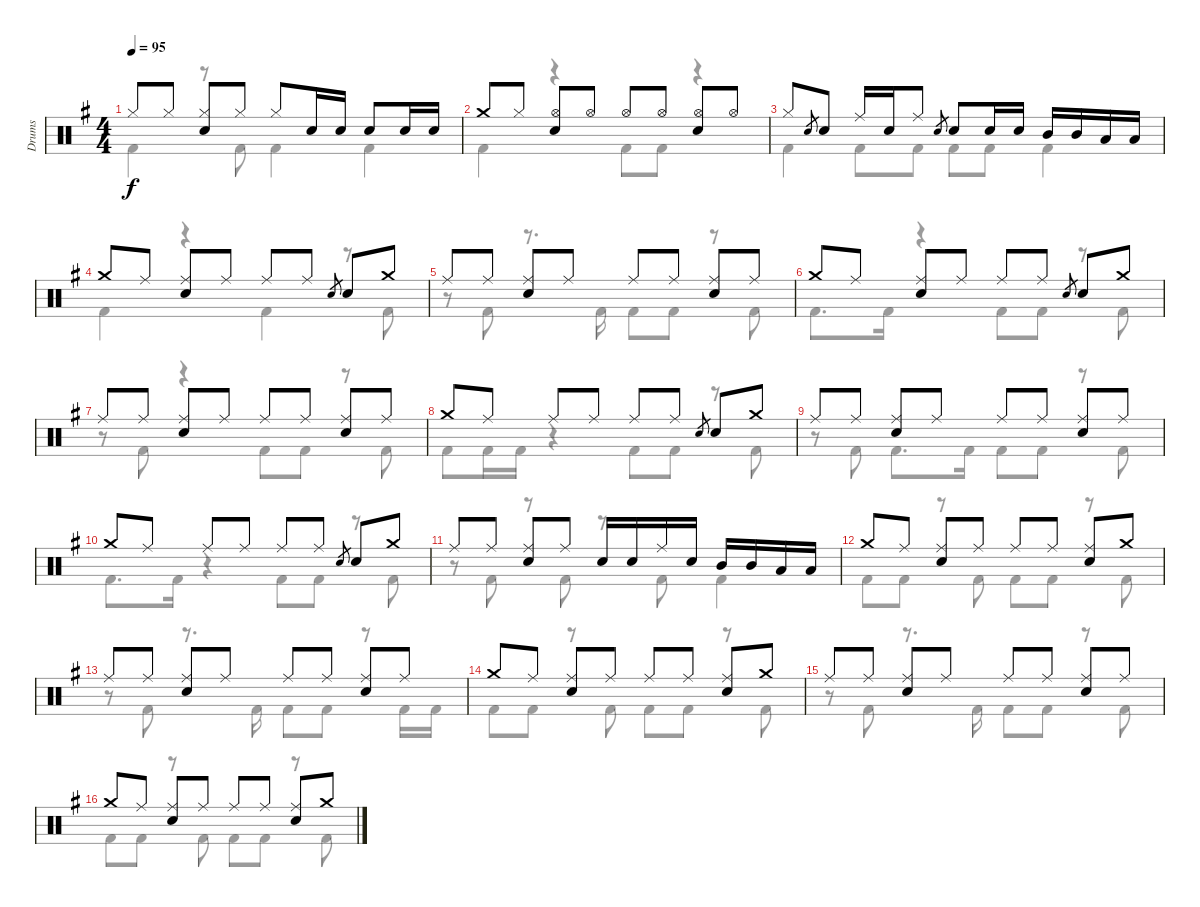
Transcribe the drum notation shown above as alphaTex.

\track ("Drums" "Drums") {instrument percussion}
\staff {score}
\articulation defaults
\voice
\ts (4 4)
\tempo 95
\clef neutral
\ks g "Hi-Hat (closed)".8{dy f} "Hi-Hat (closed)".8
("Hi-Hat (closed)" "Snare (hit) 2").8 "Hi-Hat (closed)".8 "Hi-Hat (closed)".8 "Snare (hit) 2".16 "Snare (hit) 2".16 "Snare (hit) 2".8 "Snare (hit) 2".16 "Snare (hit) 2".16 |
"Crash medium (hit)".8 "Hi-Hat (closed)".8 ("Hi-Hat (open)" "Snare (hit) 2").8 "Hi-Hat (open)".8 "Hi-Hat (open)".8 "Hi-Hat (open)".8 ("Hi-Hat (open)" "Snare (hit) 2").8 "Hi-Hat (open)".8 |
"Hi-Hat (closed)".8 "Snare (hit) 2".8{gr} "Snare (hit) 2".8 "Ride (middle)".16 "Snare (hit) 2".16 "Ride (middle)".8 "Snare (hit) 2".8{gr} "Snare (hit) 2".8 "Snare (hit) 2".16 "Snare (hit) 2".16 "Mid Tom (hit)".16 "Mid Tom (hit)".16 "Low Tom (hit)".16 "Low Tom (hit)".16 |
"Crash medium (hit)".8 "Ride (middle)".8 ("Ride (middle)" "Snare (hit) 2").8 "Ride (middle)".8 "Ride (middle)".8 "Ride (middle)".8 "Snare (hit) 2".8{gr} "Snare (hit) 2".8 "Crash medium (hit)".8 |
"Ride (middle)".8 "Ride (middle)".8 ("Ride (middle)" "Snare (hit) 2").8 "Ride (middle)".8 "Ride (middle)".8 "Ride (middle)".8 ("Ride (middle)" "Snare (hit) 2").8 "Ride (middle)".8 |
"Crash medium (hit)".8 "Ride (middle)".8 ("Ride (middle)" "Snare (hit) 2").8 "Ride (middle)".8 "Ride (middle)".8 "Ride (middle)".8 "Snare (hit) 2".8{gr} "Snare (hit) 2".8 "Crash medium (hit)".8 |
"Ride (middle)".8 "Ride (middle)".8 ("Ride (middle)" "Snare (hit) 2").8 "Ride (middle)".8 "Ride (middle)".8 "Ride (middle)".8 ("Ride (middle)" "Snare (hit) 2").8 "Ride (middle)".8 |
"Crash medium (hit)".8 "Ride (middle)".8 "Ride (middle)".8 "Ride (middle)".8 "Ride (middle)".8 "Ride (middle)".8 "Snare (hit) 2".8{gr} "Snare (hit) 2".8 "Crash medium (hit)".8 |
"Ride (middle)".8 "Ride (middle)".8 ("Ride (middle)" "Snare (hit) 2").8 "Ride (middle)".8 "Ride (middle)".8 "Ride (middle)".8 ("Ride (middle)" "Snare (hit) 2").8 "Ride (middle)".8 |
"Crash medium (hit)".8 "Ride (middle)".8 "Ride (middle)".8 "Ride (middle)".8 "Ride (middle)".8 "Ride (middle)".8 "Snare (hit) 2".8{gr} "Snare (hit) 2".8 "Crash medium (hit)".8 |
"Ride (middle)".8 "Ride (middle)".8 ("Ride (middle)" "Snare (hit) 2").8 "Ride (middle)".8 "Snare (hit) 2".16 "Snare (hit) 2".16 "Ride (middle)".16 "Snare (hit) 2".16 "Mid Tom (hit)".16 "Mid Tom (hit)".16 "Low Tom (hit)".16 "Low Tom (hit)".16 |
"Crash medium (hit)".8 "Ride (middle)".8 ("Ride (middle)" "Snare (hit) 2").8 "Ride (middle)".8 "Ride (middle)".8 "Ride (middle)".8 ("Ride (middle)" "Snare (hit) 2").8 "Crash medium (hit)".8 |
"Ride (middle)".8 "Ride (middle)".8 ("Ride (middle)" "Snare (hit) 2").8 "Ride (middle)".8 "Ride (middle)".8 "Ride (middle)".8 ("Ride (middle)" "Snare (hit) 2").8 "Ride (middle)".8 |
"Crash medium (hit)".8 "Ride (middle)".8 ("Ride (middle)" "Snare (hit) 2").8 "Ride (middle)".8 "Ride (middle)".8 "Ride (middle)".8 ("Ride (middle)" "Snare (hit) 2").8 "Crash medium (hit)".8 |
"Ride (middle)".8 "Ride (middle)".8 ("Ride (middle)" "Snare (hit) 2").8 "Ride (middle)".8 "Ride (middle)".8 "Ride (middle)".8 ("Ride (middle)" "Snare (hit) 2").8 "Ride (middle)".8 |
"Crash medium (hit)".8 "Ride (middle)".8 ("Ride (middle)" "Snare (hit) 2").8 "Ride (middle)".8 "Ride (middle)".8 "Ride (middle)".8 ("Ride (middle)" "Snare (hit) 2").8 "Crash medium (hit)".8
\voice
\clef neutral
\ottava regular
\simile none
\ks g "Kick (hit) 2".4{dy f}
r.8 "Kick (hit) 2".8 "Kick (hit) 2".4 "Kick (hit) 2".4 |
"Kick (hit) 2".4 r.4 "Kick (hit) 2".8 "Kick (hit) 2".8 r.4 |
"Kick (hit) 2".4 "Kick (hit) 2".8 "Kick (hit) 2".8 "Kick (hit) 2".8 "Kick (hit) 2".8 "Kick (hit) 2".4 |
"Kick (hit) 2".4 r.4 "Kick (hit) 2".4 r.8 "Kick (hit) 2".8 |
r.8 "Kick (hit) 2".8 r.8{d} "Kick (hit) 2".16 "Kick (hit) 2".8 "Kick (hit) 2".8 r.8 "Kick (hit) 2".8 |
"Kick (hit) 2".8{d} "Kick (hit) 2".16 r.4 "Kick (hit) 2".8 "Kick (hit) 2".8 r.8 "Kick (hit) 2".8 |
r.8 "Kick (hit) 2".8 r.4 "Kick (hit) 2".8 "Kick (hit) 2".8 r.8 "Kick (hit) 2".8 |
"Kick (hit) 2".8 "Kick (hit) 2".16 "Kick (hit) 2".16 r.4 "Kick (hit) 2".8 "Kick (hit) 2".8 r.8 "Kick (hit) 2".8 |
r.8 "Kick (hit) 2".8 "Kick (hit) 2".8{d} "Kick (hit) 2".16 "Kick (hit) 2".8 "Kick (hit) 2".8 r.8 "Kick (hit) 2".8 |
"Kick (hit) 2".8{d} "Kick (hit) 2".16 r.4 "Kick (hit) 2".8 "Kick (hit) 2".8 r.8 "Kick (hit) 2".8 |
r.8 "Kick (hit) 2".8 r.8 "Kick (hit) 2".8 r.8 "Kick (hit) 2".8 "Kick (hit) 2".4 |
"Kick (hit) 2".8 "Kick (hit) 2".8 r.8 "Kick (hit) 2".8 "Kick (hit) 2".8 "Kick (hit) 2".8 r.8 "Kick (hit) 2".8 |
r.8 "Kick (hit) 2".8 r.8{d} "Kick (hit) 2".16 "Kick (hit) 2".8 "Kick (hit) 2".8 r.8 "Kick (hit) 2".16 "Kick (hit) 2".16 |
"Kick (hit) 2".8 "Kick (hit) 2".8 r.8 "Kick (hit) 2".8 "Kick (hit) 2".8 "Kick (hit) 2".8 r.8 "Kick (hit) 2".8 |
r.8 "Kick (hit) 2".8 r.8{d} "Kick (hit) 2".16 "Kick (hit) 2".8 "Kick (hit) 2".8 r.8 "Kick (hit) 2".8 |
"Kick (hit) 2".8 "Kick (hit) 2".8 r.8 "Kick (hit) 2".8 "Kick (hit) 2".8 "Kick (hit) 2".8 r.8 "Kick (hit) 2".8
